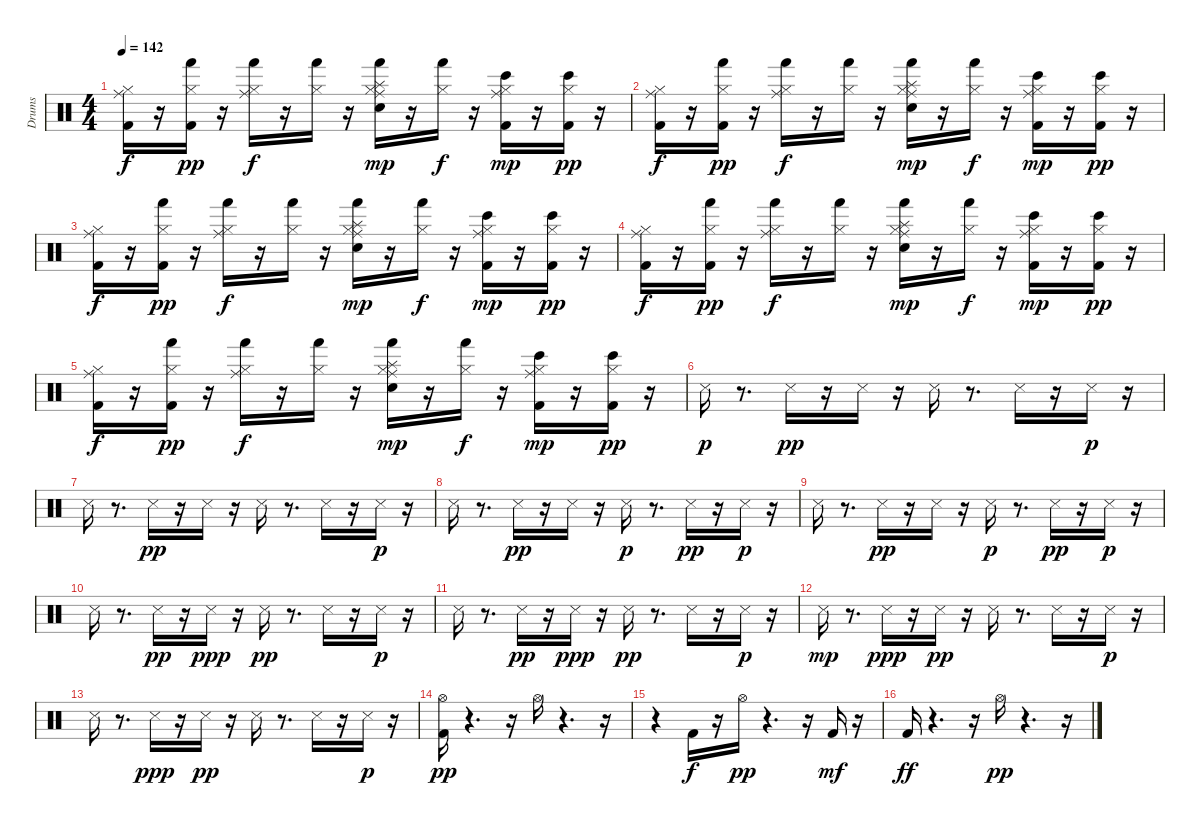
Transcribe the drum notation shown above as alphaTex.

\track ("Drums" "Drums") {instrument percussion}
\staff {score}
\articulation defaults
\ts (4 4)
\tempo 142
\clef neutral
\ks c
("Ride (middle)" "Hi-Hat (closed)" "Kick (hit) 2").16{dy f} r.16 ("Hi-Hat (closed)" "Hand (hit)" "Kick (hit) 2").16{dy pp} r.16 ("Ride (middle)" "Hi-Hat (closed)" "Hand (hit)").16{dy f} r.16 ("Hi-Hat (closed)" "Hand (hit)").16 r.16 ("Ride (middle)" "Hi-Hat (closed)" "Splash (hit)" "Hand (hit)" "Snare (hit) 2").16{dy mp} r.16 ("Hi-Hat (closed)" "Hand (hit)").16{dy f} r.16 ("Ride (middle)" "Hi-Hat (closed)" "Bongo High (hit)" "Kick (hit) 2").16{dy mp} r.16 ("Hi-Hat (closed)" "Bongo High (hit)" "Kick (hit) 2").16{dy pp} r.16 |
("Ride (middle)" "Hi-Hat (closed)" "Kick (hit) 2").16{dy f} r.16 ("Hi-Hat (closed)" "Hand (hit)" "Kick (hit) 2").16{dy pp} r.16 ("Ride (middle)" "Hi-Hat (closed)" "Hand (hit)").16{dy f} r.16 ("Hi-Hat (closed)" "Hand (hit)").16 r.16 ("Ride (middle)" "Hi-Hat (closed)" "Splash (hit)" "Hand (hit)" "Snare (hit) 2").16{dy mp} r.16 ("Hi-Hat (closed)" "Hand (hit)").16{dy f} r.16 ("Ride (middle)" "Hi-Hat (closed)" "Bongo High (hit)" "Kick (hit) 2").16{dy mp} r.16 ("Hi-Hat (closed)" "Bongo High (hit)" "Kick (hit) 2").16{dy pp} r.16 |
("Ride (middle)" "Hi-Hat (closed)" "Kick (hit) 2").16{dy f} r.16 ("Hi-Hat (closed)" "Hand (hit)" "Kick (hit) 2").16{dy pp} r.16 ("Ride (middle)" "Hi-Hat (closed)" "Hand (hit)").16{dy f} r.16 ("Hi-Hat (closed)" "Hand (hit)").16 r.16 ("Ride (middle)" "Hi-Hat (closed)" "Splash (hit)" "Hand (hit)" "Snare (hit) 2").16{dy mp} r.16 ("Hi-Hat (closed)" "Hand (hit)").16{dy f} r.16 ("Ride (middle)" "Hi-Hat (closed)" "Bongo High (hit)" "Kick (hit) 2").16{dy mp} r.16 ("Hi-Hat (closed)" "Bongo High (hit)" "Kick (hit) 2").16{dy pp} r.16 |
("Ride (middle)" "Hi-Hat (closed)" "Kick (hit) 2").16{dy f} r.16 ("Hi-Hat (closed)" "Hand (hit)" "Kick (hit) 2").16{dy pp} r.16 ("Ride (middle)" "Hi-Hat (closed)" "Hand (hit)").16{dy f} r.16 ("Hi-Hat (closed)" "Hand (hit)").16 r.16 ("Ride (middle)" "Hi-Hat (closed)" "Splash (hit)" "Hand (hit)" "Snare (hit) 2").16{dy mp} r.16 ("Hi-Hat (closed)" "Hand (hit)").16{dy f} r.16 ("Ride (middle)" "Hi-Hat (closed)" "Bongo High (hit)" "Kick (hit) 2").16{dy mp} r.16 ("Hi-Hat (closed)" "Bongo High (hit)" "Kick (hit) 2").16{dy pp} r.16 |
("Ride (middle)" "Hi-Hat (closed)" "Kick (hit) 2").16{dy f} r.16 ("Hi-Hat (closed)" "Hand (hit)" "Kick (hit) 2").16{dy pp} r.16 ("Ride (middle)" "Hi-Hat (closed)" "Hand (hit)").16{dy f} r.16 ("Hi-Hat (closed)" "Hand (hit)").16 r.16 ("Ride (middle)" "Hi-Hat (closed)" "Splash (hit)" "Hand (hit)" "Snare (hit) 2").16{dy mp} r.16 ("Hi-Hat (closed)" "Hand (hit)").16{dy f} r.16 ("Ride (middle)" "Hi-Hat (closed)" "Bongo High (hit)" "Kick (hit) 2").16{dy mp} r.16 ("Hi-Hat (closed)" "Bongo High (hit)" "Kick (hit) 2").16{dy pp} r.16 |
"Snare (side stick) 3".16{dy p} r.8{d} "Snare (side stick) 3".16{dy pp} r.16 "Snare (side stick) 3".16 r.16 "Snare (side stick) 3".16 r.8{d} "Snare (side stick) 3".16 r.16 "Snare (side stick) 3".16{dy p} r.16 |
"Snare (side stick) 3".16 r.8{d} "Snare (side stick) 3".16{dy pp} r.16 "Snare (side stick) 3".16 r.16 "Snare (side stick) 3".16 r.8{d} "Snare (side stick) 3".16 r.16 "Snare (side stick) 3".16{dy p} r.16 |
"Snare (side stick) 3".16 r.8{d} "Snare (side stick) 3".16{dy pp} r.16 "Snare (side stick) 3".16 r.16 "Snare (side stick) 3".16{dy p} r.8{d} "Snare (side stick) 3".16{dy pp} r.16 "Snare (side stick) 3".16{dy p} r.16 |
"Snare (side stick) 3".16 r.8{d} "Snare (side stick) 3".16{dy pp} r.16 "Snare (side stick) 3".16 r.16 "Snare (side stick) 3".16{dy p} r.8{d} "Snare (side stick) 3".16{dy pp} r.16 "Snare (side stick) 3".16{dy p} r.16 |
"Snare (side stick) 3".16 r.8{d} "Snare (side stick) 3".16{dy pp} r.16 "Snare (side stick) 3".16{dy ppp} r.16 "Snare (side stick) 3".16{dy pp} r.8{d} "Snare (side stick) 3".16 r.16 "Snare (side stick) 3".16{dy p} r.16 |
"Snare (side stick) 3".16 r.8{d} "Snare (side stick) 3".16{dy pp} r.16 "Snare (side stick) 3".16{dy ppp} r.16 "Snare (side stick) 3".16{dy pp} r.8{d} "Snare (side stick) 3".16 r.16 "Snare (side stick) 3".16{dy p} r.16 |
"Snare (side stick) 3".16{dy mp} r.8{d} "Snare (side stick) 3".16{dy ppp} r.16 "Snare (side stick) 3".16{dy pp} r.16 "Snare (side stick) 3".16 r.8{d} "Snare (side stick) 3".16 r.16 "Snare (side stick) 3".16{dy p} r.16 |
"Snare (side stick) 3".16 r.8{d} "Snare (side stick) 3".16{dy ppp} r.16 "Snare (side stick) 3".16{dy pp} r.16 "Snare (side stick) 3".16 r.8{d} "Snare (side stick) 3".16 r.16 "Snare (side stick) 3".16{dy p} r.16 |
("Kick (hit) 2" "Hi-Hat (open)").16{dy pp} r.4{d} r.16 "Hi-Hat (open)".16 r.4{d} r.16 |
r.4 "Kick (hit) 2".16{dy f} r.16 "Hi-Hat (open)".16{dy pp} r.4{d} r.16 "Kick (hit) 2".16{dy mf} r.16 |
"Kick (hit) 2".16{dy ff} r.4{d} r.16 "Hi-Hat (open)".16{dy pp} r.4{d} r.16
